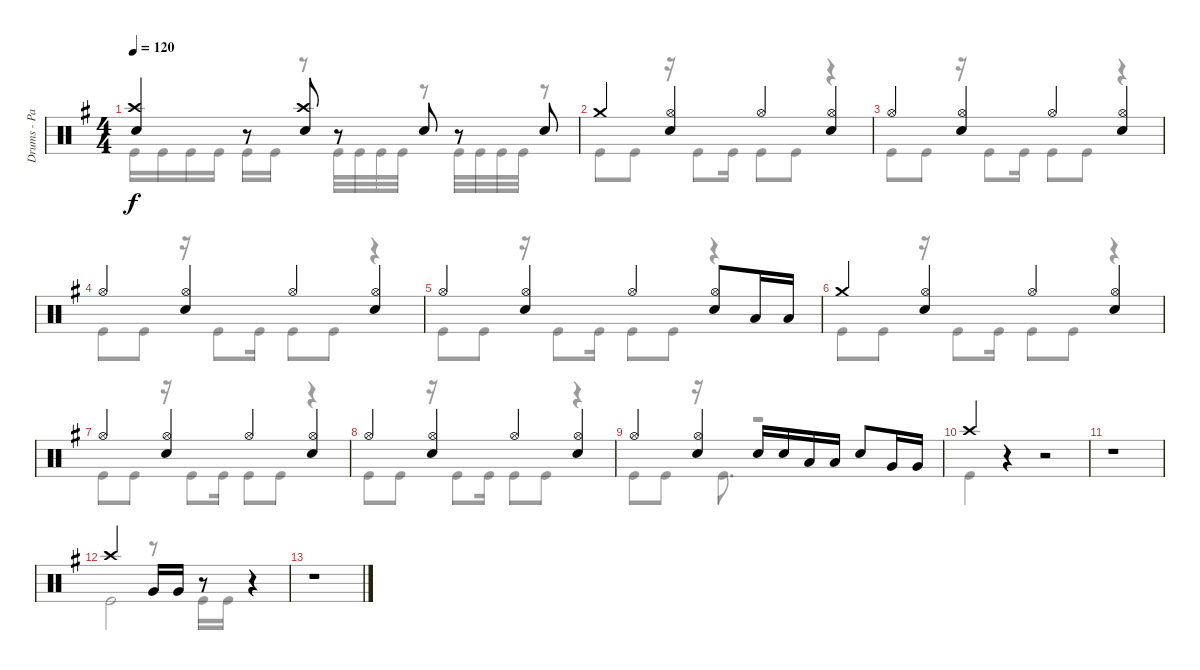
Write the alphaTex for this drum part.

\track ("Drums - Patrick Johansson" "Drums - Pa") {instrument percussion}
\staff {score}
\articulation defaults
\voice
\ts (4 4)
\tempo 120
\clef neutral
\ks eminor
("Crash high (hit)" "Snare (hit) 2").4{dy f} r.8 ("Crash high (hit)" "Snare (hit) 2").8 r.8 "Snare (hit) 2".8 r.8 "Snare (hit) 2".8 |
"Crash medium (hit)".4 ("Hi-Hat (open)" "Snare (hit) 2").4 "Hi-Hat (open)".4 ("Hi-Hat (open)" "Snare (hit) 2").4 |
"Hi-Hat (open)".4 ("Hi-Hat (open)" "Snare (hit) 2").4 "Hi-Hat (open)".4 ("Hi-Hat (open)" "Snare (hit) 2").4 |
"Hi-Hat (open)".4 ("Hi-Hat (open)" "Snare (hit) 2").4 "Hi-Hat (open)".4 ("Hi-Hat (open)" "Snare (hit) 2").4 |
"Hi-Hat (open)".4 ("Hi-Hat (open)" "Snare (hit) 2").4 "Hi-Hat (open)".4 ("Hi-Hat (open)" "Snare (hit) 2").8 "Low Tom (hit)".16 "Low Tom (hit)".16 |
"Crash medium (hit)".4 ("Hi-Hat (open)" "Snare (hit) 2").4 "Hi-Hat (open)".4 ("Hi-Hat (open)" "Snare (hit) 2").4 |
"Hi-Hat (open)".4 ("Hi-Hat (open)" "Snare (hit) 2").4 "Hi-Hat (open)".4 ("Hi-Hat (open)" "Snare (hit) 2").4 |
"Hi-Hat (open)".4 ("Hi-Hat (open)" "Snare (hit) 2").4 "Hi-Hat (open)".4 ("Hi-Hat (open)" "Snare (hit) 2").4 |
"Hi-Hat (open)".4 ("Hi-Hat (open)" "Snare (hit) 2").4 "Snare (hit) 2".16 "Snare (hit) 2".16 "Low Tom (hit)".16 "Low Tom (hit)".16 "Snare (hit) 2".8 "Very Low Tom (hit)".16 "Very Low Tom (hit)".16 |
"Crash high (hit)".4 r.4 r.2 |
r.1 |
"Crash high (hit)".2 "Very Low Tom (hit)".16 "Very Low Tom (hit)".16 r.8 r.4 |
r.1
\voice
\clef neutral
\ottava regular
\simile none
\ks eminor "Kick (hit)".16{dy f} "Kick (hit)".16 "Kick (hit)".16 "Kick (hit)".16 "Kick (hit)".16 "Kick (hit)".16
r.8 "Kick (hit)".32 "Kick (hit)".32 "Kick (hit)".32 "Kick (hit)".32 r.8 "Kick (hit)".32 "Kick (hit)".32 "Kick (hit)".32 "Kick (hit)".32 r.8 |
"Kick (hit)".8 "Kick (hit)".8 r.16 "Kick (hit)".8 "Kick (hit)".16 "Kick (hit)".8 "Kick (hit)".8 r.4 |
"Kick (hit)".8 "Kick (hit)".8 r.16 "Kick (hit)".8 "Kick (hit)".16 "Kick (hit)".8 "Kick (hit)".8 r.4 |
"Kick (hit)".8 "Kick (hit)".8 r.16 "Kick (hit)".8 "Kick (hit)".16 "Kick (hit)".8 "Kick (hit)".8 r.4 |
"Kick (hit)".8 "Kick (hit)".8 r.16 "Kick (hit)".8 "Kick (hit)".16 "Kick (hit)".8 "Kick (hit)".8 r.4 |
"Kick (hit)".8 "Kick (hit)".8 r.16 "Kick (hit)".8 "Kick (hit)".16 "Kick (hit)".8 "Kick (hit)".8 r.4 |
"Kick (hit)".8 "Kick (hit)".8 r.16 "Kick (hit)".8 "Kick (hit)".16 "Kick (hit)".8 "Kick (hit)".8 r.4 |
"Kick (hit)".8 "Kick (hit)".8 r.16 "Kick (hit)".8 "Kick (hit)".16 "Kick (hit)".8 "Kick (hit)".8 r.4 |
"Kick (hit)".8 "Kick (hit)".8 r.16 "Kick (hit)".8{d} r.2 |
"Kick (hit)".4 r.4 r.2 |
r.1 |
"Kick (hit)".2 r.8 "Kick (hit)".16 "Kick (hit)".16 r.4 |
r.1
